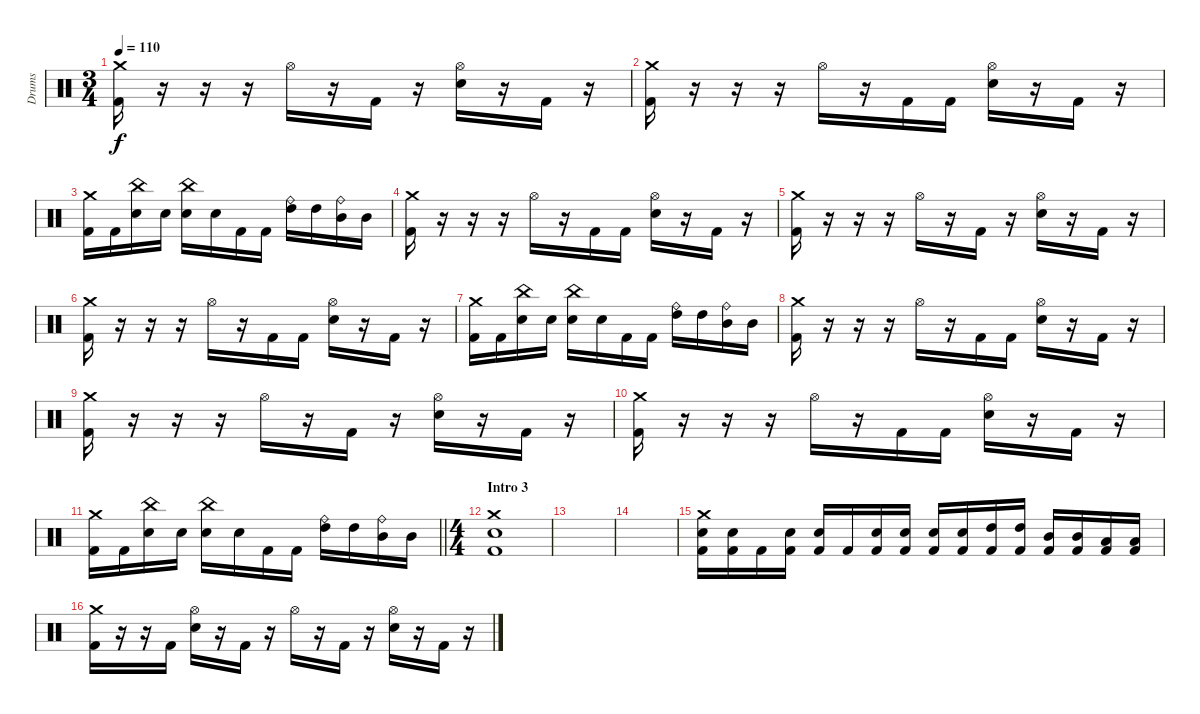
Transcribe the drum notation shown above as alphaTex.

\track ("Drums" "Drums") {instrument percussion}
\staff
\articulation defaults
\ts (3 4)
\tempo 110
\clef neutral
\ks c
("Crash medium (hit)" "Kick (hit) 2").16{dy f} r.16 r.16 r.16 "Hi-Hat (open)".16 r.16 "Kick (hit) 2".16 r.16 ("Hi-Hat (open)" "Electric Snare (hit)").16 r.16 "Kick (hit) 2".16 r.16 |
("Crash medium (hit)" "Kick (hit) 2").16 r.16 r.16 r.16 "Hi-Hat (open)".16 r.16 "Kick (hit) 2".16 "Kick (hit) 2".16 ("Hi-Hat (open)" "Electric Snare (hit)").16 r.16 "Kick (hit) 2".16 r.16 |
("Crash medium (hit)" "Kick (hit) 2").16 "Kick (hit) 2".16 ("China (hit)" "Electric Snare (hit)").16 "Electric Snare (hit)".16 ("China (hit)" "Electric Snare (hit)").16 "Electric Snare (hit)".16 "Kick (hit) 2".16 "Kick (hit) 2".16 ("Ride (bell)" "High Tom (hit)").16 "High Tom (hit)".16 ("Ride (bell)" "Mid Tom (hit)").16 "Mid Tom (hit)".16 |
("Crash medium (hit)" "Kick (hit) 2").16 r.16 r.16 r.16 "Hi-Hat (open)".16 r.16 "Kick (hit) 2".16 "Kick (hit) 2".16 ("Hi-Hat (open)" "Electric Snare (hit)").16 r.16 "Kick (hit) 2".16 r.16 |
("Crash medium (hit)" "Kick (hit) 2").16 r.16 r.16 r.16 "Hi-Hat (open)".16 r.16 "Kick (hit) 2".16 r.16 ("Hi-Hat (open)" "Electric Snare (hit)").16 r.16 "Kick (hit) 2".16 r.16 |
("Crash medium (hit)" "Kick (hit) 2").16 r.16 r.16 r.16 "Hi-Hat (open)".16 r.16 "Kick (hit) 2".16 "Kick (hit) 2".16 ("Hi-Hat (open)" "Electric Snare (hit)").16 r.16 "Kick (hit) 2".16 r.16 |
("Crash medium (hit)" "Kick (hit) 2").16 "Kick (hit) 2".16 ("China (hit)" "Electric Snare (hit)").16 "Electric Snare (hit)".16 ("China (hit)" "Electric Snare (hit)").16 "Electric Snare (hit)".16 "Kick (hit) 2".16 "Kick (hit) 2".16 ("Ride (bell)" "High Tom (hit)").16 "High Tom (hit)".16 ("Ride (bell)" "Mid Tom (hit)").16 "Mid Tom (hit)".16 |
("Crash medium (hit)" "Kick (hit) 2").16 r.16 r.16 r.16 "Hi-Hat (open)".16 r.16 "Kick (hit) 2".16 "Kick (hit) 2".16 ("Hi-Hat (open)" "Electric Snare (hit)").16 r.16 "Kick (hit) 2".16 r.16 |
("Crash medium (hit)" "Kick (hit) 2").16 r.16 r.16 r.16 "Hi-Hat (open)".16 r.16 "Kick (hit) 2".16 r.16 ("Hi-Hat (open)" "Electric Snare (hit)").16 r.16 "Kick (hit) 2".16 r.16 |
("Crash medium (hit)" "Kick (hit) 2").16 r.16 r.16 r.16 "Hi-Hat (open)".16 r.16 "Kick (hit) 2".16 "Kick (hit) 2".16 ("Hi-Hat (open)" "Electric Snare (hit)").16 r.16 "Kick (hit) 2".16 r.16 |
\barLineRight lightlight
("Crash medium (hit)" "Kick (hit) 2").16 "Kick (hit) 2".16 ("China (hit)" "Electric Snare (hit)").16 "Electric Snare (hit)".16 ("China (hit)" "Electric Snare (hit)").16 "Electric Snare (hit)".16 "Kick (hit) 2".16 "Kick (hit) 2".16 ("Ride (bell)" "High Tom (hit)").16 "High Tom (hit)".16 ("Ride (bell)" "Mid Tom (hit)").16 "Mid Tom (hit)".16 |
\ts (4 4)
\section ("" "Intro 3")
("Crash medium (hit)" "Electric Snare (hit)" "Kick (hit) 2").1 |
|
|
("Electric Snare (hit)" "Crash medium (hit)" "Kick (hit) 2").16 ("Electric Snare (hit)" "Kick (hit) 2").16 "Kick (hit) 2".16 ("Electric Snare (hit)" "Kick (hit) 2").16 ("Electric Snare (hit)" "Kick (hit) 2").16 "Kick (hit) 2".16 ("Electric Snare (hit)" "Kick (hit) 2").16 ("Electric Snare (hit)" "Kick (hit) 2").16 ("Electric Snare (hit)" "Kick (hit) 2").16 ("Electric Snare (hit)" "Kick (hit) 2").16 ("High Tom (hit)" "Kick (hit) 2").16 ("High Tom (hit)" "Kick (hit) 2").16 ("Mid Tom (hit)" "Kick (hit) 2").16 ("Mid Tom (hit)" "Kick (hit) 2").16 ("Low Tom (hit)" "Kick (hit) 2").16 ("Low Tom (hit)" "Kick (hit) 2").16 |
("Crash medium (hit)" "Kick (hit) 2").16 r.16 r.16 "Kick (hit) 2".16 ("Hi-Hat (open)" "Electric Snare (hit)").16 r.16 "Kick (hit) 2".16 r.16 "Hi-Hat (open)".16 r.16 "Kick (hit) 2".16 r.16 ("Hi-Hat (open)" "Electric Snare (hit)").16 r.16 "Kick (hit) 2".16 r.16
